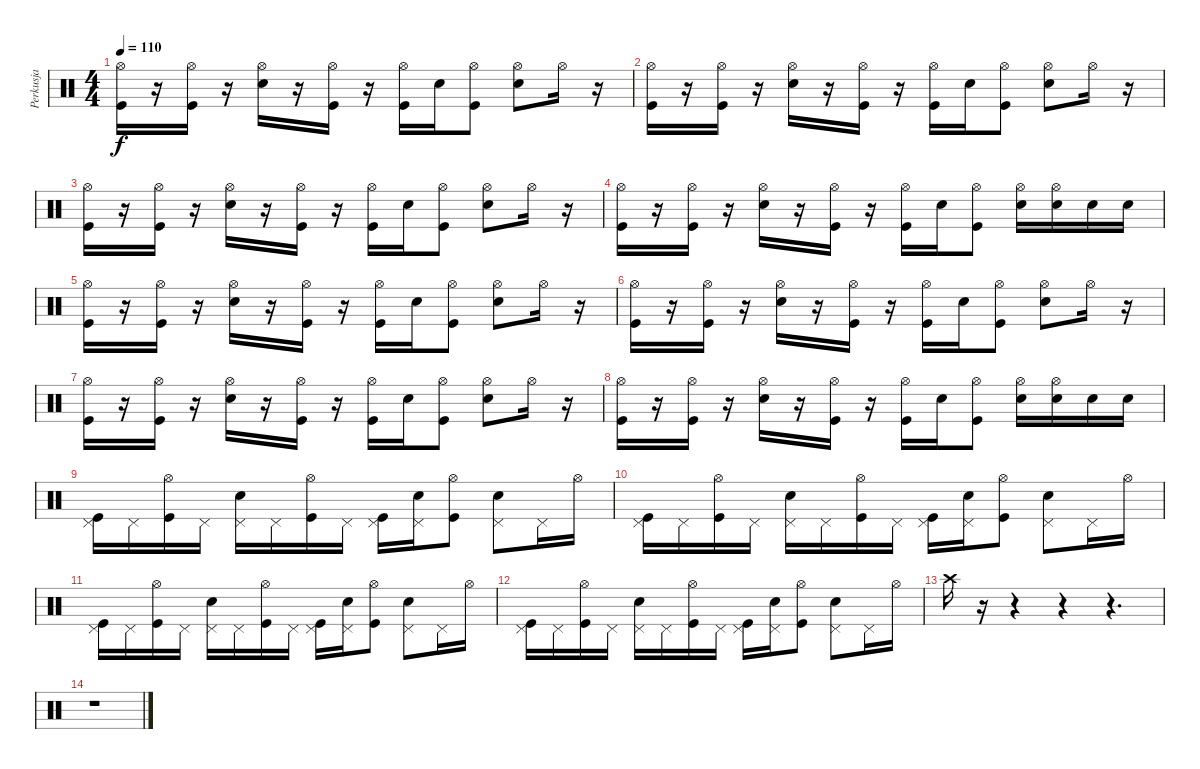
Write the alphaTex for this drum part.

\track ("Perkusja" "Perkusja") {instrument percussion}
\staff {score}
\articulation defaults
\ts (4 4)
\tempo 110
\clef neutral
\ks c
("Kick (hit)" "Hi-Hat (open)").16{dy f} r.16 ("Kick (hit)" "Hi-Hat (open)").16 r.16 ("Snare (hit) 2" "Hi-Hat (open)").16 r.16 ("Kick (hit)" "Hi-Hat (open)").16 r.16 ("Kick (hit)" "Hi-Hat (open)").16 "Snare (hit) 2".16 ("Kick (hit)" "Hi-Hat (open)").8 ("Snare (hit) 2" "Hi-Hat (open)").8 "Hi-Hat (open)".16 r.16 |
("Kick (hit)" "Hi-Hat (open)").16 r.16 ("Kick (hit)" "Hi-Hat (open)").16 r.16 ("Snare (hit) 2" "Hi-Hat (open)").16 r.16 ("Kick (hit)" "Hi-Hat (open)").16 r.16 ("Kick (hit)" "Hi-Hat (open)").16 "Snare (hit) 2".16 ("Kick (hit)" "Hi-Hat (open)").8 ("Snare (hit) 2" "Hi-Hat (open)").8 "Hi-Hat (open)".16 r.16 |
("Kick (hit)" "Hi-Hat (open)").16 r.16 ("Kick (hit)" "Hi-Hat (open)").16 r.16 ("Snare (hit) 2" "Hi-Hat (open)").16 r.16 ("Kick (hit)" "Hi-Hat (open)").16 r.16 ("Kick (hit)" "Hi-Hat (open)").16 "Snare (hit) 2".16 ("Kick (hit)" "Hi-Hat (open)").8 ("Snare (hit) 2" "Hi-Hat (open)").8 "Hi-Hat (open)".16 r.16 |
("Kick (hit)" "Hi-Hat (open)").16 r.16 ("Kick (hit)" "Hi-Hat (open)").16 r.16 ("Snare (hit) 2" "Hi-Hat (open)").16 r.16 ("Kick (hit)" "Hi-Hat (open)").16 r.16 ("Kick (hit)" "Hi-Hat (open)").16 "Snare (hit) 2".16 ("Kick (hit)" "Hi-Hat (open)").8 ("Snare (hit) 2" "Hi-Hat (open)").16 ("Snare (hit) 2" "Hi-Hat (open)").16 "Snare (hit) 2".16 "Snare (hit) 2".16 |
("Kick (hit)" "Hi-Hat (open)").16 r.16 ("Kick (hit)" "Hi-Hat (open)").16 r.16 ("Snare (hit) 2" "Hi-Hat (open)").16 r.16 ("Kick (hit)" "Hi-Hat (open)").16 r.16 ("Kick (hit)" "Hi-Hat (open)").16 "Snare (hit) 2".16 ("Kick (hit)" "Hi-Hat (open)").8 ("Snare (hit) 2" "Hi-Hat (open)").8 "Hi-Hat (open)".16 r.16 |
("Kick (hit)" "Hi-Hat (open)").16 r.16 ("Kick (hit)" "Hi-Hat (open)").16 r.16 ("Snare (hit) 2" "Hi-Hat (open)").16 r.16 ("Kick (hit)" "Hi-Hat (open)").16 r.16 ("Kick (hit)" "Hi-Hat (open)").16 "Snare (hit) 2".16 ("Kick (hit)" "Hi-Hat (open)").8 ("Snare (hit) 2" "Hi-Hat (open)").8 "Hi-Hat (open)".16 r.16 |
("Kick (hit)" "Hi-Hat (open)").16 r.16 ("Kick (hit)" "Hi-Hat (open)").16 r.16 ("Snare (hit) 2" "Hi-Hat (open)").16 r.16 ("Kick (hit)" "Hi-Hat (open)").16 r.16 ("Kick (hit)" "Hi-Hat (open)").16 "Snare (hit) 2".16 ("Kick (hit)" "Hi-Hat (open)").8 ("Snare (hit) 2" "Hi-Hat (open)").8 "Hi-Hat (open)".16 r.16 |
("Kick (hit)" "Hi-Hat (open)").16 r.16 ("Kick (hit)" "Hi-Hat (open)").16 r.16 ("Snare (hit) 2" "Hi-Hat (open)").16 r.16 ("Kick (hit)" "Hi-Hat (open)").16 r.16 ("Kick (hit)" "Hi-Hat (open)").16 "Snare (hit) 2".16 ("Kick (hit)" "Hi-Hat (open)").8 ("Snare (hit) 2" "Hi-Hat (open)").16 ("Snare (hit) 2" "Hi-Hat (open)").16 "Snare (hit) 2".16 "Snare (hit) 2".16 |
("Kick (hit)" "Pedal Hi-Hat (hit)").16 "Pedal Hi-Hat (hit)".16 ("Kick (hit)" "Hi-Hat (open)").16 "Pedal Hi-Hat (hit)".16 ("Snare (hit) 2" "Pedal Hi-Hat (hit)").16 "Pedal Hi-Hat (hit)".16 ("Kick (hit)" "Hi-Hat (open)").16 "Pedal Hi-Hat (hit)".16 ("Kick (hit)" "Pedal Hi-Hat (hit)").16 ("Snare (hit) 2" "Pedal Hi-Hat (hit)").16 ("Kick (hit)" "Hi-Hat (open)").8 ("Snare (hit) 2" "Pedal Hi-Hat (hit)").8 "Pedal Hi-Hat (hit)".16 "Hi-Hat (open)".16 |
("Kick (hit)" "Pedal Hi-Hat (hit)").16 "Pedal Hi-Hat (hit)".16 ("Kick (hit)" "Hi-Hat (open)").16 "Pedal Hi-Hat (hit)".16 ("Snare (hit) 2" "Pedal Hi-Hat (hit)").16 "Pedal Hi-Hat (hit)".16 ("Kick (hit)" "Hi-Hat (open)").16 "Pedal Hi-Hat (hit)".16 ("Kick (hit)" "Pedal Hi-Hat (hit)").16 ("Snare (hit) 2" "Pedal Hi-Hat (hit)").16 ("Kick (hit)" "Hi-Hat (open)").8 ("Snare (hit) 2" "Pedal Hi-Hat (hit)").8 "Pedal Hi-Hat (hit)".16 "Hi-Hat (open)".16 |
("Kick (hit)" "Pedal Hi-Hat (hit)").16 "Pedal Hi-Hat (hit)".16 ("Kick (hit)" "Hi-Hat (open)").16 "Pedal Hi-Hat (hit)".16 ("Snare (hit) 2" "Pedal Hi-Hat (hit)").16 "Pedal Hi-Hat (hit)".16 ("Kick (hit)" "Hi-Hat (open)").16 "Pedal Hi-Hat (hit)".16 ("Kick (hit)" "Pedal Hi-Hat (hit)").16 ("Snare (hit) 2" "Pedal Hi-Hat (hit)").16 ("Kick (hit)" "Hi-Hat (open)").8 ("Snare (hit) 2" "Pedal Hi-Hat (hit)").8 "Pedal Hi-Hat (hit)".16 "Hi-Hat (open)".16 |
("Kick (hit)" "Pedal Hi-Hat (hit)").16 "Pedal Hi-Hat (hit)".16 ("Kick (hit)" "Hi-Hat (open)").16 "Pedal Hi-Hat (hit)".16 ("Snare (hit) 2" "Pedal Hi-Hat (hit)").16 "Pedal Hi-Hat (hit)".16 ("Kick (hit)" "Hi-Hat (open)").16 "Pedal Hi-Hat (hit)".16 ("Kick (hit)" "Pedal Hi-Hat (hit)").16 ("Snare (hit) 2" "Pedal Hi-Hat (hit)").16 ("Kick (hit)" "Hi-Hat (open)").8 ("Snare (hit) 2" "Pedal Hi-Hat (hit)").8 "Pedal Hi-Hat (hit)".16 "Hi-Hat (open)".16 |
"Crash high (hit)".16 r.16 r.4 r.4 r.4{d} |
r.1
